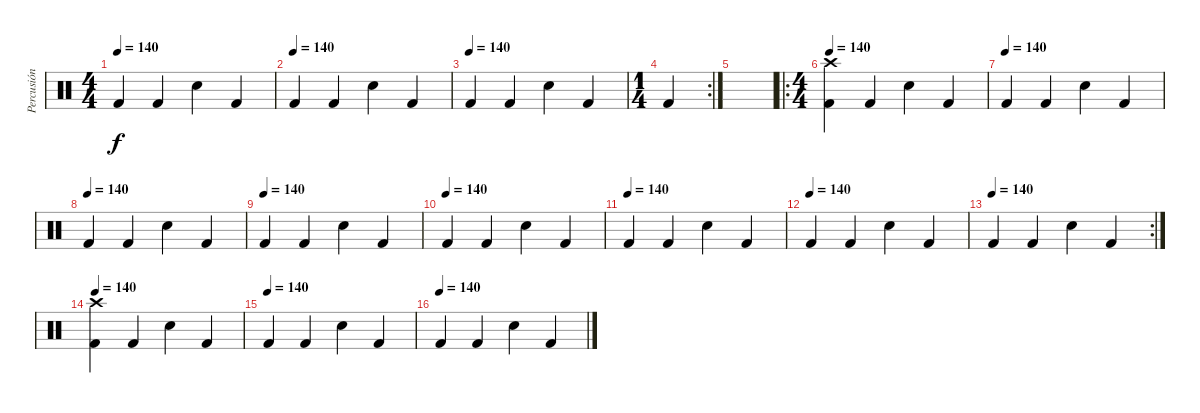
\track ("Percusión" "Percusión") {instrument percussion}
\staff {score}
\articulation defaults
\ts (4 4)
\tempo 140
\clef neutral
\ks c "Kick (hit) 2".4{dy f} "Kick (hit) 2".4 "Snare (hit) 2".4 "Kick (hit) 2".4
|
\tempo (140)
"Kick (hit) 2".4 "Kick (hit) 2".4 "Snare (hit) 2".4 "Kick (hit) 2".4 |
\tempo (140)
"Kick (hit) 2".4 "Kick (hit) 2".4 "Snare (hit) 2".4 "Kick (hit) 2".4 |
\rc 2
\ts (1 4)
"Kick (hit) 2".4 |
|
\ro
\ts (4 4)
\tempo 140
("Crash high (hit)" "Kick (hit) 2").4 "Kick (hit) 2".4 "Snare (hit) 2".4 "Kick (hit) 2".4 |
\tempo (140)
"Kick (hit) 2".4 "Kick (hit) 2".4 "Snare (hit) 2".4 "Kick (hit) 2".4 |
\tempo (140)
"Kick (hit) 2".4 "Kick (hit) 2".4 "Snare (hit) 2".4 "Kick (hit) 2".4 |
\tempo (140)
"Kick (hit) 2".4 "Kick (hit) 2".4 "Snare (hit) 2".4 "Kick (hit) 2".4 |
\tempo (140)
"Kick (hit) 2".4 "Kick (hit) 2".4 "Snare (hit) 2".4 "Kick (hit) 2".4 |
\tempo (140)
"Kick (hit) 2".4 "Kick (hit) 2".4 "Snare (hit) 2".4 "Kick (hit) 2".4 |
\tempo (140)
"Kick (hit) 2".4 "Kick (hit) 2".4 "Snare (hit) 2".4 "Kick (hit) 2".4 |
\rc 2
\tempo (140)
"Kick (hit) 2".4 "Kick (hit) 2".4 "Snare (hit) 2".4 "Kick (hit) 2".4 |
\tempo 140
("Crash high (hit)" "Kick (hit) 2").4 "Kick (hit) 2".4 "Snare (hit) 2".4 "Kick (hit) 2".4 |
\tempo (140)
"Kick (hit) 2".4 "Kick (hit) 2".4 "Snare (hit) 2".4 "Kick (hit) 2".4 |
\tempo (140)
"Kick (hit) 2".4 "Kick (hit) 2".4 "Snare (hit) 2".4 "Kick (hit) 2".4
